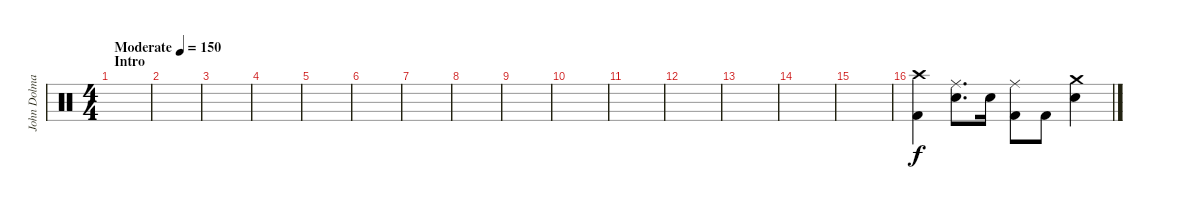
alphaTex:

\track ("John Dolmayan(Drums)" "John Dolma") {instrument percussion}
\staff {score}
\articulation defaults
\ts (4 4)
\section ("" "Intro")
\tempo (150 "Moderate")
\clef neutral
\ks c
|
|
|
|
|
|
|
|
|
|
|
|
|
|
|
("Crash high (hit)" "Kick (hit) 2").4 ("Ride (middle)" "Snare (hit) 2").8{d} "Snare (hit) 2".16 ("Ride (middle)" "Kick (hit) 2").8 "Kick (hit) 2".8 ("Crash medium (hit)" "Snare (hit) 2").4
